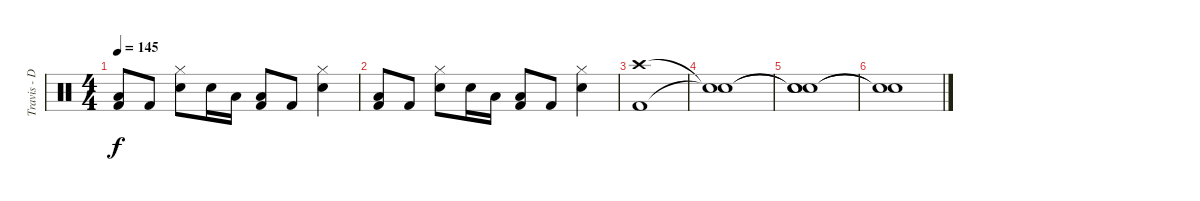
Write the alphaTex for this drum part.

\track ("Travis - Drums" "Travis - D") {instrument percussion}
\staff {score}
\articulation defaults
\ts (4 4)
\tempo 145
\clef neutral
\ks c
("Low Floor Tom (hit)" "Kick (hit) 2").8{dy f} "Kick (hit) 2".8 ("Hi-Hat (closed)" "Snare (hit) 2").8 "Snare (hit) 2".16 "Low Tom (hit)".16 ("Low Floor Tom (hit)" "Kick (hit) 2").8 "Kick (hit) 2".8 ("Hi-Hat (closed)" "Snare (hit) 2").4 |
("Low Floor Tom (hit)" "Kick (hit) 2").8 "Kick (hit) 2".8 ("Hi-Hat (closed)" "Snare (hit) 2").8 "Snare (hit) 2".16 "Low Tom (hit)".16 ("Low Floor Tom (hit)" "Kick (hit) 2").8 "Kick (hit) 2".8 ("Hi-Hat (closed)" "Snare (hit) 2").4 |
("Crash high (hit)" "Kick (hit) 2").1 |
("Snare (hit)"{t} "Snare (hit)"{t}).1 |
("Snare (hit)"{t} "Snare (hit)"{t} "Snare (hit)").1 |
("Snare (hit)"{t} "Snare (hit)"{t}).1
